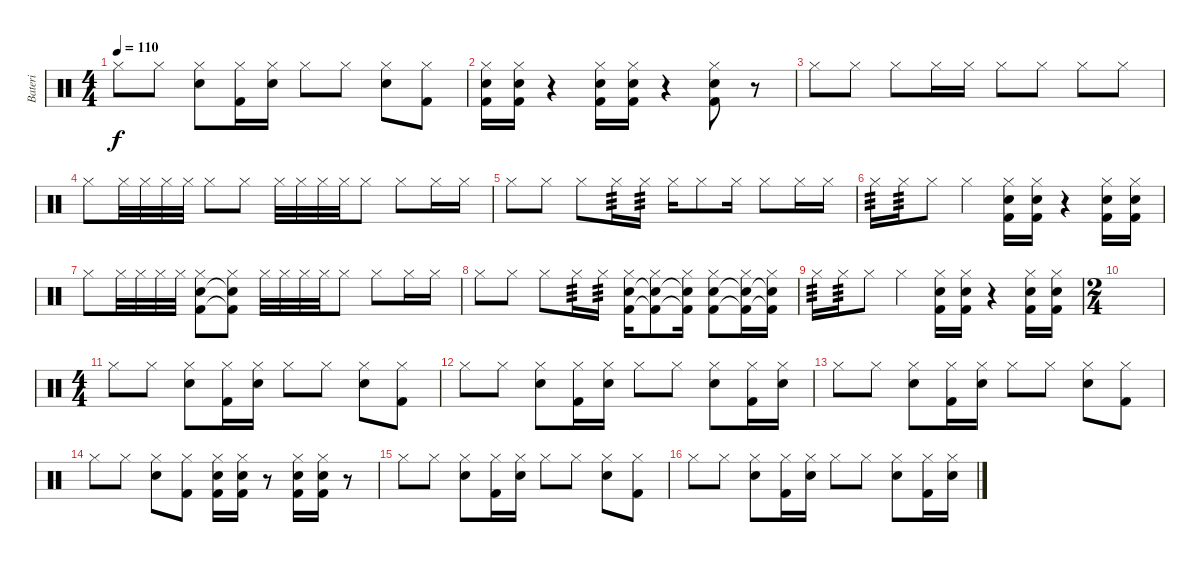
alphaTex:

\track ("Bateri" "Bateri") {instrument percussion}
\staff {score}
\articulation defaults
\ts (4 4)
\tempo 110
\clef neutral
\ks c "Hi-Hat (closed)".8{dy f} "Hi-Hat (closed)".8
("Electric Snare (hit)" "Hi-Hat (closed)").8 ("Kick (hit) 2" "Hi-Hat (closed)").16 ("Electric Snare (hit)" "Hi-Hat (closed)").16 "Hi-Hat (closed)".8 "Hi-Hat (closed)".8 ("Electric Snare (hit)" "Hi-Hat (closed)").8 ("Kick (hit) 2" "Hi-Hat (closed)").8 |
("Electric Snare (hit)" "Kick (hit) 2" "Hi-Hat (closed)").16 ("Electric Snare (hit)" "Kick (hit) 2" "Hi-Hat (closed)").16 r.4 ("Electric Snare (hit)" "Kick (hit) 2" "Hi-Hat (closed)").16 ("Electric Snare (hit)" "Kick (hit) 2" "Hi-Hat (closed)").16 r.4 ("Electric Snare (hit)" "Kick (hit) 2" "Hi-Hat (closed)").8 r.8 |
"Hi-Hat (closed)".8 "Hi-Hat (closed)".8 "Hi-Hat (closed)".8 "Hi-Hat (closed)".16 "Hi-Hat (closed)".16 "Hi-Hat (closed)".8 "Hi-Hat (closed)".8 "Hi-Hat (closed)".8 "Hi-Hat (closed)".8 |
"Hi-Hat (closed)".8 "Hi-Hat (closed)".32 "Hi-Hat (closed)".32 "Hi-Hat (closed)".32 "Hi-Hat (closed)".32 "Hi-Hat (closed)".8 "Hi-Hat (closed)".8 "Hi-Hat (closed)".32 "Hi-Hat (closed)".32 "Hi-Hat (closed)".32 "Hi-Hat (closed)".32 "Hi-Hat (closed)".8 "Hi-Hat (closed)".8 "Hi-Hat (closed)".16 "Hi-Hat (closed)".16 |
"Hi-Hat (closed)".8 "Hi-Hat (closed)".8 "Hi-Hat (closed)".8 "Hi-Hat (closed)".16{tp 3} "Hi-Hat (closed)".16{tp 3} "Hi-Hat (closed)".16 "Hi-Hat (closed)".8 "Hi-Hat (closed)".16 "Hi-Hat (closed)".8 "Hi-Hat (closed)".16 "Hi-Hat (closed)".16 |
"Hi-Hat (closed)".16{tp 3} "Hi-Hat (closed)".16{tp 3} "Hi-Hat (closed)".8 "Hi-Hat (closed)".4 ("Electric Snare (hit)" "Kick (hit) 2" "Hi-Hat (closed)").16 ("Electric Snare (hit)" "Kick (hit) 2" "Hi-Hat (closed)").16 r.4 ("Electric Snare (hit)" "Kick (hit) 2" "Hi-Hat (closed)").16 ("Electric Snare (hit)" "Kick (hit) 2" "Hi-Hat (closed)").16 |
"Hi-Hat (closed)".8 "Hi-Hat (closed)".32 "Hi-Hat (closed)".32 "Hi-Hat (closed)".32 "Hi-Hat (closed)".32 ("Kick (hit) 2" "Electric Snare (hit)" "Hi-Hat (closed)").8 ("Kick (hit) 2"{t} "Electric Snare (hit)"{t} "Hi-Hat (closed)").8 "Hi-Hat (closed)".32 "Hi-Hat (closed)".32 "Hi-Hat (closed)".32 "Hi-Hat (closed)".32 "Hi-Hat (closed)".8 "Hi-Hat (closed)".8 "Hi-Hat (closed)".16 "Hi-Hat (closed)".16 |
"Hi-Hat (closed)".8 "Hi-Hat (closed)".8 "Hi-Hat (closed)".8 "Hi-Hat (closed)".16{tp 3} "Hi-Hat (closed)".16{tp 3} ("Electric Snare (hit)" "Kick (hit) 2" "Hi-Hat (closed)").16 ("Electric Snare (hit)"{t} "Kick (hit) 2"{t} "Hi-Hat (closed)").8 ("Electric Snare (hit)"{t} "Kick (hit) 2"{t} "Hi-Hat (closed)").16 ("Electric Snare (hit)" "Kick (hit) 2" "Hi-Hat (closed)").8 ("Electric Snare (hit)"{t} "Kick (hit) 2"{t} "Hi-Hat (closed)").16 ("Electric Snare (hit)"{t} "Kick (hit) 2"{t} "Hi-Hat (closed)").16 |
"Hi-Hat (closed)".16{tp 3} "Hi-Hat (closed)".16{tp 3} "Hi-Hat (closed)".8 "Hi-Hat (closed)".4 ("Electric Snare (hit)" "Kick (hit) 2" "Hi-Hat (closed)").16 ("Electric Snare (hit)" "Kick (hit) 2" "Hi-Hat (closed)").16 r.4 ("Electric Snare (hit)" "Kick (hit) 2" "Hi-Hat (closed)").16 ("Electric Snare (hit)" "Kick (hit) 2" "Hi-Hat (closed)").16 |
\ts (2 4)
|
\ts (4 4)
"Hi-Hat (closed)".8 "Hi-Hat (closed)".8 ("Electric Snare (hit)" "Hi-Hat (closed)").8 ("Kick (hit) 2" "Hi-Hat (closed)").16 ("Electric Snare (hit)" "Hi-Hat (closed)").16 "Hi-Hat (closed)".8 "Hi-Hat (closed)".8 ("Electric Snare (hit)" "Hi-Hat (closed)").8 ("Kick (hit) 2" "Hi-Hat (closed)").8 |
"Hi-Hat (closed)".8 "Hi-Hat (closed)".8 ("Electric Snare (hit)" "Hi-Hat (closed)").8 ("Kick (hit) 2" "Hi-Hat (closed)").16 ("Electric Snare (hit)" "Hi-Hat (closed)").16 "Hi-Hat (closed)".8 "Hi-Hat (closed)".8 ("Electric Snare (hit)" "Hi-Hat (closed)").8 ("Kick (hit) 2" "Hi-Hat (closed)").16 ("Electric Snare (hit)" "Hi-Hat (closed)").16 |
"Hi-Hat (closed)".8 "Hi-Hat (closed)".8 ("Electric Snare (hit)" "Hi-Hat (closed)").8 ("Kick (hit) 2" "Hi-Hat (closed)").16 ("Electric Snare (hit)" "Hi-Hat (closed)").16 "Hi-Hat (closed)".8 "Hi-Hat (closed)".8 ("Electric Snare (hit)" "Hi-Hat (closed)").8 ("Kick (hit) 2" "Hi-Hat (closed)").8 |
"Hi-Hat (closed)".8 "Hi-Hat (closed)".8 ("Electric Snare (hit)" "Hi-Hat (closed)").8 ("Kick (hit) 2" "Hi-Hat (closed)").8 ("Electric Snare (hit)" "Kick (hit) 2" "Hi-Hat (closed)").16 ("Electric Snare (hit)" "Kick (hit) 2" "Hi-Hat (closed)").16 r.8 ("Electric Snare (hit)" "Kick (hit) 2" "Hi-Hat (closed)").16 ("Electric Snare (hit)" "Kick (hit) 2" "Hi-Hat (closed)").16 r.8 |
"Hi-Hat (closed)".8 "Hi-Hat (closed)".8 ("Electric Snare (hit)" "Hi-Hat (closed)").8 ("Kick (hit) 2" "Hi-Hat (closed)").16 ("Electric Snare (hit)" "Hi-Hat (closed)").16 "Hi-Hat (closed)".8 "Hi-Hat (closed)".8 ("Electric Snare (hit)" "Hi-Hat (closed)").8 ("Kick (hit) 2" "Hi-Hat (closed)").8 |
"Hi-Hat (closed)".8 "Hi-Hat (closed)".8 ("Electric Snare (hit)" "Hi-Hat (closed)").8 ("Kick (hit) 2" "Hi-Hat (closed)").16 ("Electric Snare (hit)" "Hi-Hat (closed)").16 "Hi-Hat (closed)".8 "Hi-Hat (closed)".8 ("Electric Snare (hit)" "Hi-Hat (closed)").8 ("Kick (hit) 2" "Hi-Hat (closed)").16 ("Electric Snare (hit)" "Hi-Hat (closed)").16
